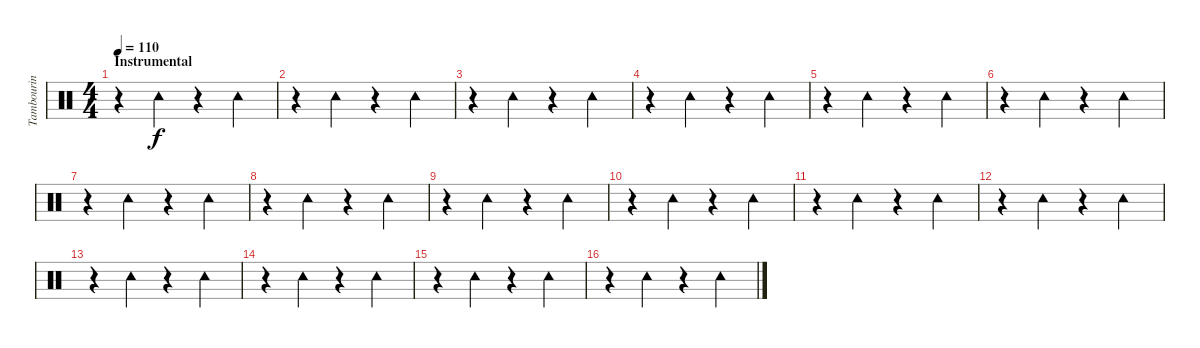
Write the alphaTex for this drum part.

\track ("Tambourin" "Tambourin") {instrument percussion}
\staff {score}
\articulation defaults
\ts (4 4)
\section ("" "Instrumental")
\tempo 110
\clef neutral
\ks c
r.4{dy f} "Tambourine (hit)".4 r.4 "Tambourine (hit)".4 |
r.4 "Tambourine (hit)".4 r.4 "Tambourine (hit)".4 |
r.4 "Tambourine (hit)".4 r.4 "Tambourine (hit)".4 |
r.4 "Tambourine (hit)".4 r.4 "Tambourine (hit)".4 |
r.4 "Tambourine (hit)".4 r.4 "Tambourine (hit)".4 |
r.4 "Tambourine (hit)".4 r.4 "Tambourine (hit)".4 |
r.4 "Tambourine (hit)".4 r.4 "Tambourine (hit)".4 |
r.4 "Tambourine (hit)".4 r.4 "Tambourine (hit)".4 |
r.4 "Tambourine (hit)".4 r.4 "Tambourine (hit)".4 |
r.4 "Tambourine (hit)".4 r.4 "Tambourine (hit)".4 |
r.4 "Tambourine (hit)".4 r.4 "Tambourine (hit)".4 |
r.4 "Tambourine (hit)".4 r.4 "Tambourine (hit)".4 |
r.4 "Tambourine (hit)".4 r.4 "Tambourine (hit)".4 |
r.4 "Tambourine (hit)".4 r.4 "Tambourine (hit)".4 |
r.4 "Tambourine (hit)".4 r.4 "Tambourine (hit)".4 |
r.4 "Tambourine (hit)".4 r.4 "Tambourine (hit)".4
